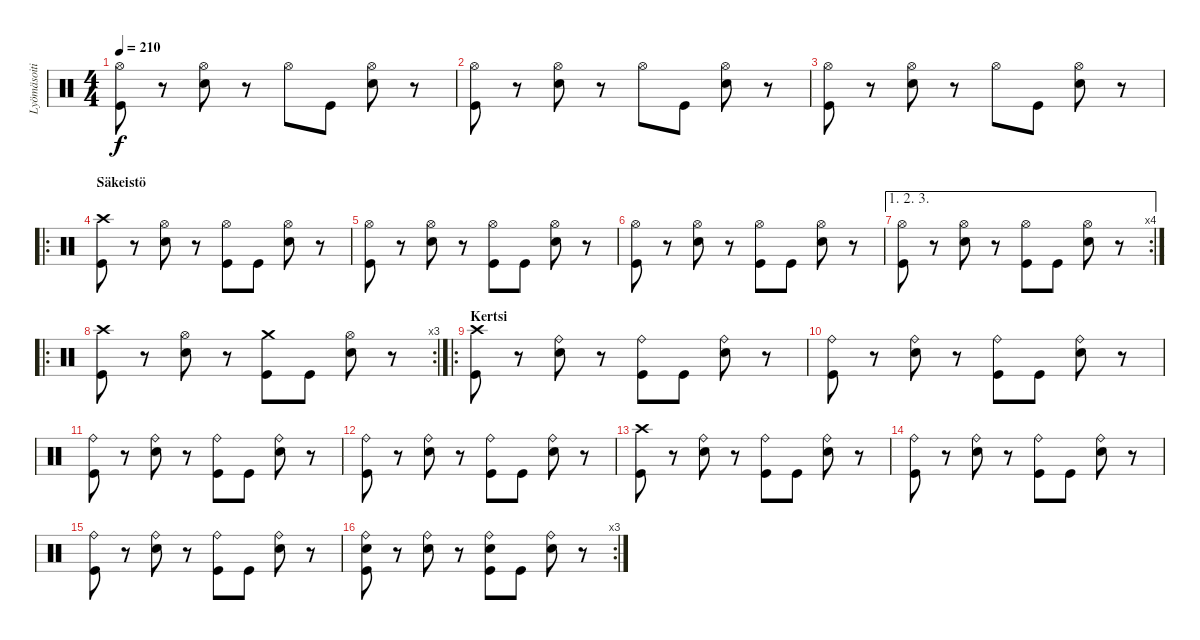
\track ("Lyömäsoitin" "Lyömäsoiti") {instrument percussion}
\staff {score}
\articulation defaults
\ts (4 4)
\tempo 210
\clef neutral
\ks c
("Hi-Hat (open)" "Kick (hit)").8{dy f} r.8 ("Hi-Hat (open)" "Snare (hit) 2").8 r.8 "Hi-Hat (open)".8 "Kick (hit)".8 ("Hi-Hat (open)" "Snare (hit) 2").8 r.8 |
("Hi-Hat (open)" "Kick (hit)").8 r.8 ("Hi-Hat (open)" "Snare (hit) 2").8 r.8 "Hi-Hat (open)".8 "Kick (hit)".8 ("Hi-Hat (open)" "Snare (hit) 2").8 r.8 |
("Hi-Hat (open)" "Kick (hit)").8 r.8 ("Hi-Hat (open)" "Snare (hit) 2").8 r.8 "Hi-Hat (open)".8 "Kick (hit)".8 ("Hi-Hat (open)" "Snare (hit) 2").8 r.8 |
\ro
\section ("" "Säkeistö")
("Crash high (hit)" "Kick (hit)").8 r.8 ("Hi-Hat (open)" "Snare (hit) 2").8 r.8 ("Hi-Hat (open)" "Kick (hit)").8 "Kick (hit)".8 ("Hi-Hat (open)" "Snare (hit) 2").8 r.8 |
("Hi-Hat (open)" "Kick (hit)").8 r.8 ("Hi-Hat (open)" "Snare (hit) 2").8 r.8 ("Hi-Hat (open)" "Kick (hit)").8 "Kick (hit)".8 ("Hi-Hat (open)" "Snare (hit) 2").8 r.8 |
("Hi-Hat (open)" "Kick (hit)").8 r.8 ("Hi-Hat (open)" "Snare (hit) 2").8 r.8 ("Hi-Hat (open)" "Kick (hit)").8 "Kick (hit)".8 ("Hi-Hat (open)" "Snare (hit) 2").8 r.8 |
\ae (1 2 3)
\rc 4
("Hi-Hat (open)" "Kick (hit)").8 r.8 ("Hi-Hat (open)" "Snare (hit) 2").8 r.8 ("Hi-Hat (open)" "Kick (hit)").8 "Kick (hit)".8 ("Hi-Hat (open)" "Snare (hit) 2").8 r.8 |
\ro
\rc 3
("Crash high (hit)" "Kick (hit)").8 r.8 ("Hi-Hat (open)" "Snare (hit) 2").8 r.8 ("Crash medium (hit)" "Kick (hit)").8 "Kick (hit)".8 ("Hi-Hat (open)" "Snare (hit) 2").8 r.8 |
\ro
\section ("" "Kertsi")
("Crash high (hit)" "Kick (hit)").8 r.8 ("Ride (bell)" "Snare (hit) 2").8 r.8 ("Ride (bell)" "Kick (hit)").8 "Kick (hit)".8 ("Ride (bell)" "Snare (hit) 2").8 r.8 |
("Ride (bell)" "Kick (hit)").8 r.8 ("Ride (bell)" "Snare (hit) 2").8 r.8 ("Ride (bell)" "Kick (hit)").8 "Kick (hit)".8 ("Ride (bell)" "Snare (hit) 2").8 r.8 |
("Ride (bell)" "Kick (hit)").8 r.8 ("Ride (bell)" "Snare (hit) 2").8 r.8 ("Ride (bell)" "Kick (hit)").8 "Kick (hit)".8 ("Ride (bell)" "Snare (hit) 2").8 r.8 |
("Ride (bell)" "Kick (hit)").8 r.8 ("Ride (bell)" "Snare (hit) 2").8 r.8 ("Ride (bell)" "Kick (hit)").8 "Kick (hit)".8 ("Ride (bell)" "Snare (hit) 2").8 r.8 |
("Crash high (hit)" "Kick (hit)").8 r.8 ("Ride (bell)" "Snare (hit) 2").8 r.8 ("Ride (bell)" "Kick (hit)").8 "Kick (hit)".8 ("Ride (bell)" "Snare (hit) 2").8 r.8 |
("Ride (bell)" "Kick (hit)").8 r.8 ("Ride (bell)" "Snare (hit) 2").8 r.8 ("Ride (bell)" "Kick (hit)").8 "Kick (hit)".8 ("Ride (bell)" "Snare (hit) 2").8 r.8 |
("Ride (bell)" "Kick (hit)").8 r.8 ("Ride (bell)" "Snare (hit) 2").8 r.8 ("Ride (bell)" "Kick (hit)").8 "Kick (hit)".8 ("Ride (bell)" "Snare (hit) 2").8 r.8 |
\rc 3
("Ride (bell)" "Snare (hit) 2" "Kick (hit)").8 r.8 ("Ride (bell)" "Snare (hit) 2").8 r.8 ("Ride (bell)" "Snare (hit) 2" "Kick (hit)").8 "Kick (hit)".8 ("Ride (bell)" "Snare (hit) 2").8 r.8
